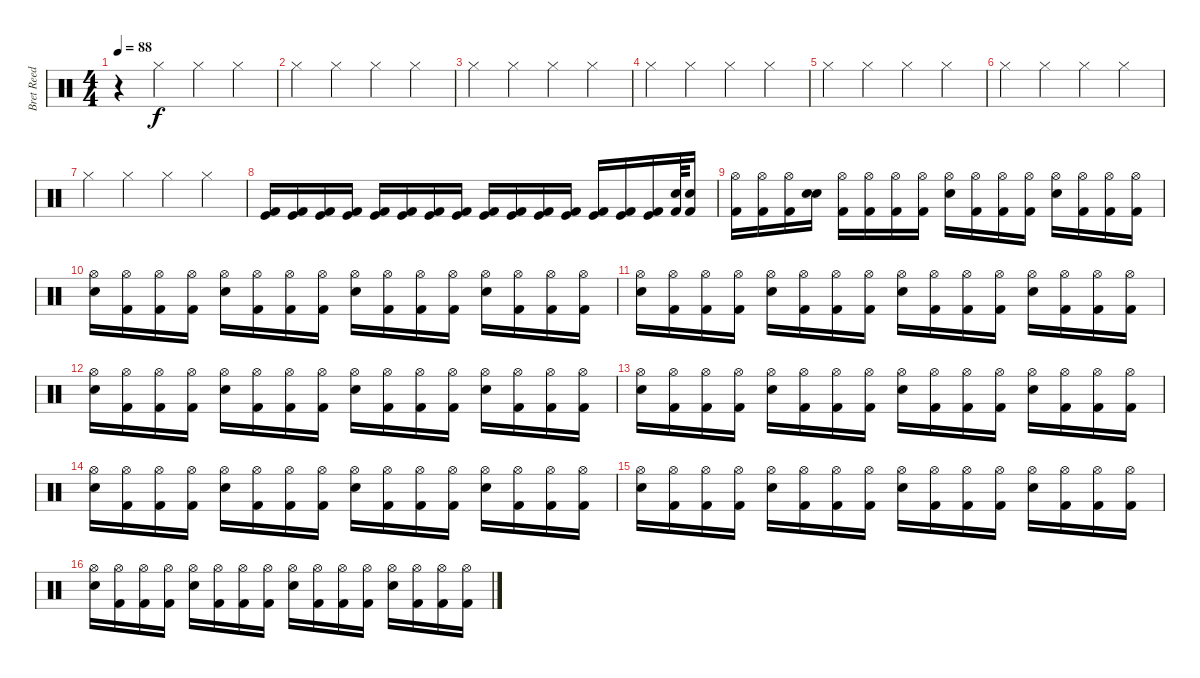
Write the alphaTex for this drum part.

\track ("Bret Reed" "Bret Reed") {instrument percussion}
\staff {score}
\articulation defaults
\ts (4 4)
\tempo 88
\clef neutral
\ks c
r.4{dy f} "Hi-Hat (closed)".4 "Hi-Hat (closed)".4 "Hi-Hat (closed)".4 |
"Hi-Hat (closed)".4 "Hi-Hat (closed)".4 "Hi-Hat (closed)".4 "Hi-Hat (closed)".4 |
"Hi-Hat (closed)".4 "Hi-Hat (closed)".4 "Hi-Hat (closed)".4 "Hi-Hat (closed)".4 |
"Hi-Hat (closed)".4 "Hi-Hat (closed)".4 "Hi-Hat (closed)".4 "Hi-Hat (closed)".4 |
"Hi-Hat (closed)".4 "Hi-Hat (closed)".4 "Hi-Hat (closed)".4 "Hi-Hat (closed)".4 |
"Hi-Hat (closed)".4 "Hi-Hat (closed)".4 "Hi-Hat (closed)".4 "Hi-Hat (closed)".4 |
"Hi-Hat (closed)".4 "Hi-Hat (closed)".4 "Hi-Hat (closed)".4 "Hi-Hat (closed)".4 |
("Kick (hit)" "Kick (hit) 2").16 ("Kick (hit)" "Kick (hit) 2").16 ("Kick (hit)" "Kick (hit) 2").16 ("Kick (hit)" "Kick (hit) 2").16 ("Kick (hit)" "Kick (hit) 2").16 ("Kick (hit)" "Kick (hit) 2").16 ("Kick (hit)" "Kick (hit) 2").16 ("Kick (hit)" "Kick (hit) 2").16 ("Kick (hit)" "Kick (hit) 2").16 ("Kick (hit)" "Kick (hit) 2").16 ("Kick (hit)" "Kick (hit) 2").16 ("Kick (hit)" "Kick (hit) 2").16 ("Kick (hit)" "Kick (hit) 2").16 ("Kick (hit)" "Kick (hit) 2").16 ("Kick (hit)" "Kick (hit) 2").16 ("Electric Snare (hit)" "Kick (hit) 2").64 ("Electric Snare (hit)" "Kick (hit) 2").16 |
("Kick (hit) 2" "Hi-Hat (open)").16 ("Kick (hit) 2" "Hi-Hat (open)").16 ("Kick (hit) 2" "Hi-Hat (open)").16 ("Electric Snare (hit)" "Electric Snare (hit)").16 ("Kick (hit) 2" "Hi-Hat (open)").16 ("Kick (hit) 2" "Hi-Hat (open)").16 ("Kick (hit) 2" "Hi-Hat (open)").16 ("Kick (hit) 2" "Hi-Hat (open)").16 ("Electric Snare (hit)" "Hi-Hat (open)").16 ("Kick (hit) 2" "Hi-Hat (open)").16 ("Kick (hit) 2" "Hi-Hat (open)").16 ("Kick (hit) 2" "Hi-Hat (open)").16 ("Electric Snare (hit)" "Hi-Hat (open)").16 ("Kick (hit) 2" "Hi-Hat (open)").16 ("Kick (hit) 2" "Hi-Hat (open)").16 ("Kick (hit) 2" "Hi-Hat (open)").16 |
("Electric Snare (hit)" "Hi-Hat (open)").16 ("Kick (hit) 2" "Hi-Hat (open)").16 ("Kick (hit) 2" "Hi-Hat (open)").16 ("Kick (hit) 2" "Hi-Hat (open)").16 ("Electric Snare (hit)" "Hi-Hat (open)").16 ("Kick (hit) 2" "Hi-Hat (open)").16 ("Kick (hit) 2" "Hi-Hat (open)").16 ("Kick (hit) 2" "Hi-Hat (open)").16 ("Electric Snare (hit)" "Hi-Hat (open)").16 ("Kick (hit) 2" "Hi-Hat (open)").16 ("Kick (hit) 2" "Hi-Hat (open)").16 ("Kick (hit) 2" "Hi-Hat (open)").16 ("Electric Snare (hit)" "Hi-Hat (open)").16 ("Kick (hit) 2" "Hi-Hat (open)").16 ("Kick (hit) 2" "Hi-Hat (open)").16 ("Kick (hit) 2" "Hi-Hat (open)").16 |
("Electric Snare (hit)" "Hi-Hat (open)").16 ("Kick (hit) 2" "Hi-Hat (open)").16 ("Kick (hit) 2" "Hi-Hat (open)").16 ("Kick (hit) 2" "Hi-Hat (open)").16 ("Electric Snare (hit)" "Hi-Hat (open)").16 ("Kick (hit) 2" "Hi-Hat (open)").16 ("Kick (hit) 2" "Hi-Hat (open)").16 ("Kick (hit) 2" "Hi-Hat (open)").16 ("Electric Snare (hit)" "Hi-Hat (open)").16 ("Kick (hit) 2" "Hi-Hat (open)").16 ("Kick (hit) 2" "Hi-Hat (open)").16 ("Kick (hit) 2" "Hi-Hat (open)").16 ("Electric Snare (hit)" "Hi-Hat (open)").16 ("Kick (hit) 2" "Hi-Hat (open)").16 ("Kick (hit) 2" "Hi-Hat (open)").16 ("Kick (hit) 2" "Hi-Hat (open)").16 |
("Electric Snare (hit)" "Hi-Hat (open)").16 ("Kick (hit) 2" "Hi-Hat (open)").16 ("Kick (hit) 2" "Hi-Hat (open)").16 ("Kick (hit) 2" "Hi-Hat (open)").16 ("Electric Snare (hit)" "Hi-Hat (open)").16 ("Kick (hit) 2" "Hi-Hat (open)").16 ("Kick (hit) 2" "Hi-Hat (open)").16 ("Kick (hit) 2" "Hi-Hat (open)").16 ("Electric Snare (hit)" "Hi-Hat (open)").16 ("Kick (hit) 2" "Hi-Hat (open)").16 ("Kick (hit) 2" "Hi-Hat (open)").16 ("Kick (hit) 2" "Hi-Hat (open)").16 ("Electric Snare (hit)" "Hi-Hat (open)").16 ("Kick (hit) 2" "Hi-Hat (open)").16 ("Kick (hit) 2" "Hi-Hat (open)").16 ("Kick (hit) 2" "Hi-Hat (open)").16 |
("Electric Snare (hit)" "Hi-Hat (open)").16 ("Kick (hit) 2" "Hi-Hat (open)").16 ("Kick (hit) 2" "Hi-Hat (open)").16 ("Kick (hit) 2" "Hi-Hat (open)").16 ("Electric Snare (hit)" "Hi-Hat (open)").16 ("Kick (hit) 2" "Hi-Hat (open)").16 ("Kick (hit) 2" "Hi-Hat (open)").16 ("Kick (hit) 2" "Hi-Hat (open)").16 ("Electric Snare (hit)" "Hi-Hat (open)").16 ("Kick (hit) 2" "Hi-Hat (open)").16 ("Kick (hit) 2" "Hi-Hat (open)").16 ("Kick (hit) 2" "Hi-Hat (open)").16 ("Electric Snare (hit)" "Hi-Hat (open)").16 ("Kick (hit) 2" "Hi-Hat (open)").16 ("Kick (hit) 2" "Hi-Hat (open)").16 ("Kick (hit) 2" "Hi-Hat (open)").16 |
("Electric Snare (hit)" "Hi-Hat (open)").16 ("Kick (hit) 2" "Hi-Hat (open)").16 ("Kick (hit) 2" "Hi-Hat (open)").16 ("Kick (hit) 2" "Hi-Hat (open)").16 ("Electric Snare (hit)" "Hi-Hat (open)").16 ("Kick (hit) 2" "Hi-Hat (open)").16 ("Kick (hit) 2" "Hi-Hat (open)").16 ("Kick (hit) 2" "Hi-Hat (open)").16 ("Electric Snare (hit)" "Hi-Hat (open)").16 ("Kick (hit) 2" "Hi-Hat (open)").16 ("Kick (hit) 2" "Hi-Hat (open)").16 ("Kick (hit) 2" "Hi-Hat (open)").16 ("Electric Snare (hit)" "Hi-Hat (open)").16 ("Kick (hit) 2" "Hi-Hat (open)").16 ("Kick (hit) 2" "Hi-Hat (open)").16 ("Kick (hit) 2" "Hi-Hat (open)").16 |
("Electric Snare (hit)" "Hi-Hat (open)").16 ("Kick (hit) 2" "Hi-Hat (open)").16 ("Kick (hit) 2" "Hi-Hat (open)").16 ("Kick (hit) 2" "Hi-Hat (open)").16 ("Electric Snare (hit)" "Hi-Hat (open)").16 ("Kick (hit) 2" "Hi-Hat (open)").16 ("Kick (hit) 2" "Hi-Hat (open)").16 ("Kick (hit) 2" "Hi-Hat (open)").16 ("Electric Snare (hit)" "Hi-Hat (open)").16 ("Kick (hit) 2" "Hi-Hat (open)").16 ("Kick (hit) 2" "Hi-Hat (open)").16 ("Kick (hit) 2" "Hi-Hat (open)").16 ("Electric Snare (hit)" "Hi-Hat (open)").16 ("Kick (hit) 2" "Hi-Hat (open)").16 ("Kick (hit) 2" "Hi-Hat (open)").16 ("Kick (hit) 2" "Hi-Hat (open)").16 |
("Electric Snare (hit)" "Hi-Hat (open)").16 ("Kick (hit) 2" "Hi-Hat (open)").16 ("Kick (hit) 2" "Hi-Hat (open)").16 ("Kick (hit) 2" "Hi-Hat (open)").16 ("Electric Snare (hit)" "Hi-Hat (open)").16 ("Kick (hit) 2" "Hi-Hat (open)").16 ("Kick (hit) 2" "Hi-Hat (open)").16 ("Kick (hit) 2" "Hi-Hat (open)").16 ("Electric Snare (hit)" "Hi-Hat (open)").16 ("Kick (hit) 2" "Hi-Hat (open)").16 ("Kick (hit) 2" "Hi-Hat (open)").16 ("Kick (hit) 2" "Hi-Hat (open)").16 ("Electric Snare (hit)" "Hi-Hat (open)").16 ("Kick (hit) 2" "Hi-Hat (open)").16 ("Kick (hit) 2" "Hi-Hat (open)").16 ("Kick (hit) 2" "Hi-Hat (open)").16
